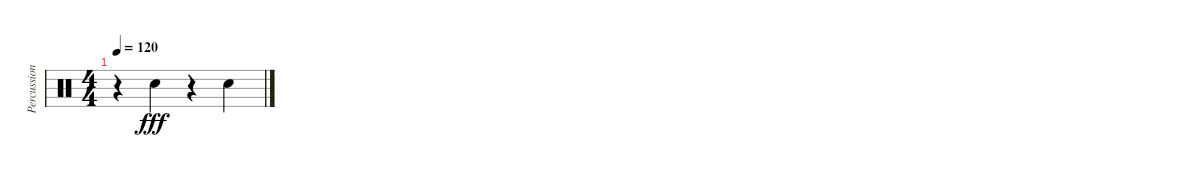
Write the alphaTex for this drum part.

\track ("Percussions" "Percussion") {instrument percussion}
\staff {score}
\articulation defaults
\ts (4 4)
\tempo 120
\clef neutral
\ks c
r.4{dy fff} "Electric Snare (hit)".4 r.4 "Electric Snare (hit)".4
